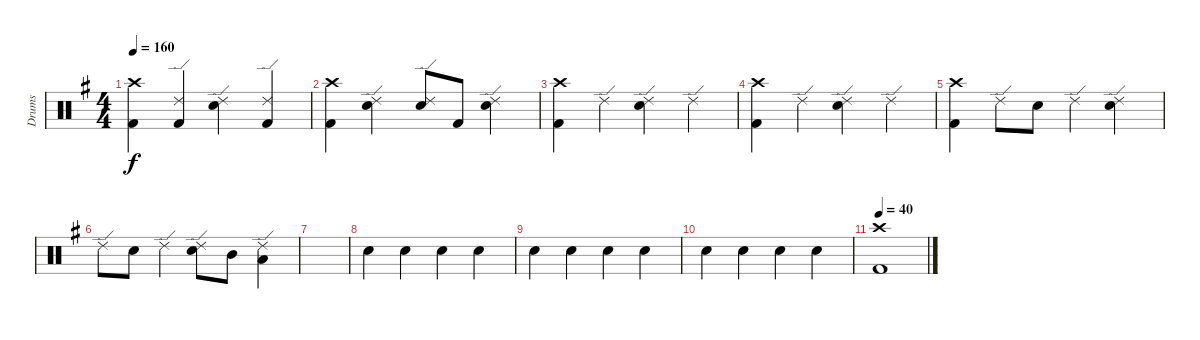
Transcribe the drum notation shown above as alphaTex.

\track ("Drums" "Drums") {instrument percussion}
\staff {score}
\articulation defaults
\ts (4 4)
\tempo 160
\clef neutral
\ks g
("Crash high (hit)" "Kick (hit) 2").4{dy f} ("Ride (edge) 2" "Kick (hit) 2").4 ("Ride (edge) 2" "Electric Snare (hit)").4 ("Ride (edge) 2" "Kick (hit) 2").4 |
("Crash high (hit)" "Kick (hit) 2").4 ("Ride (edge) 2" "Electric Snare (hit)").4 ("Ride (edge) 2" "Electric Snare (hit)").8 "Kick (hit) 2".8 ("Ride (edge) 2" "Electric Snare (hit)").4 |
("Crash high (hit)" "Kick (hit) 2").4 "Ride (edge) 2".4 ("Ride (edge) 2" "Electric Snare (hit)").4 "Ride (edge) 2".4 |
("Crash high (hit)" "Kick (hit) 2").4 "Ride (edge) 2".4 ("Ride (edge) 2" "Electric Snare (hit)").4 "Ride (edge) 2".4 |
("Crash high (hit)" "Kick (hit) 2").4 "Ride (edge) 2".8 "Electric Snare (hit)".8 "Ride (edge) 2".4 ("Ride (edge) 2" "Electric Snare (hit)").4 |
"Ride (edge) 2".8 "Electric Snare (hit)".8 "Ride (edge) 2".4 ("Ride (edge) 2" "Electric Snare (hit)").8 "Mid Tom (hit)".8 ("Ride (edge) 2" "Low Tom (hit)").4 |
|
"Electric Snare (hit)".4{volume 13} "Electric Snare (hit)".4 "Electric Snare (hit)".4 "Electric Snare (hit)".4 |
"Electric Snare (hit)".4 "Electric Snare (hit)".4 "Electric Snare (hit)".4 "Electric Snare (hit)".4 |
"Electric Snare (hit)".4 "Electric Snare (hit)".4 "Electric Snare (hit)".4 "Electric Snare (hit)".4 |
\tempo 40
("Crash high (hit)" "Kick (hit) 2").1{volume 0}
